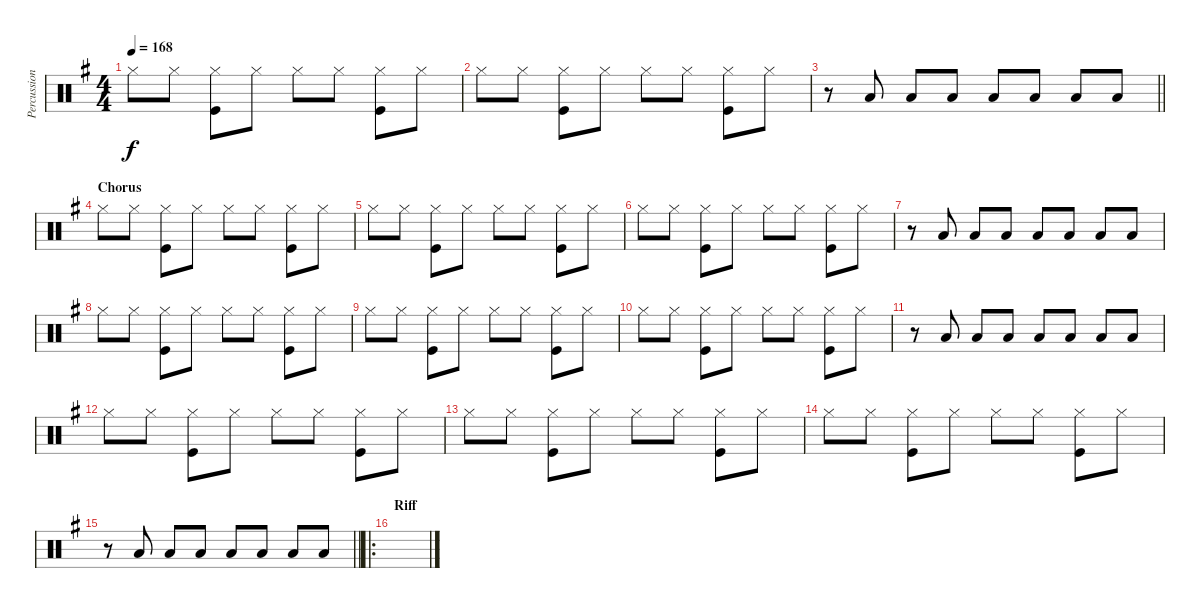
\track ("Percussion" "Percussion") {instrument percussion}
\staff {score}
\articulation defaults
\ts (4 4)
\tempo 168
\clef neutral
\ks g "Hi-Hat (closed)".8{dy f} "Hi-Hat (closed)".8
("Hi-Hat (closed)" "Kick (hit)").8 "Hi-Hat (closed)".8 "Hi-Hat (closed)".8 "Hi-Hat (closed)".8 ("Hi-Hat (closed)" "Kick (hit)").8 "Hi-Hat (closed)".8 |
"Hi-Hat (closed)".8 "Hi-Hat (closed)".8 ("Hi-Hat (closed)" "Kick (hit)").8 "Hi-Hat (closed)".8 "Hi-Hat (closed)".8 "Hi-Hat (closed)".8 ("Hi-Hat (closed)" "Kick (hit)").8 "Hi-Hat (closed)".8 |
\barLineRight lightlight
r.8 "Low Tom (hit)".8 "Low Tom (hit)".8 "Low Tom (hit)".8 "Low Tom (hit)".8 "Low Tom (hit)".8 "Low Tom (hit)".8 "Low Tom (hit)".8 |
\section ("" "Chorus")
"Hi-Hat (closed)".8 "Hi-Hat (closed)".8 ("Hi-Hat (closed)" "Kick (hit)").8 "Hi-Hat (closed)".8 "Hi-Hat (closed)".8 "Hi-Hat (closed)".8 ("Hi-Hat (closed)" "Kick (hit)").8 "Hi-Hat (closed)".8 |
"Hi-Hat (closed)".8 "Hi-Hat (closed)".8 ("Hi-Hat (closed)" "Kick (hit)").8 "Hi-Hat (closed)".8 "Hi-Hat (closed)".8 "Hi-Hat (closed)".8 ("Hi-Hat (closed)" "Kick (hit)").8 "Hi-Hat (closed)".8 |
"Hi-Hat (closed)".8 "Hi-Hat (closed)".8 ("Hi-Hat (closed)" "Kick (hit)").8 "Hi-Hat (closed)".8 "Hi-Hat (closed)".8 "Hi-Hat (closed)".8 ("Hi-Hat (closed)" "Kick (hit)").8 "Hi-Hat (closed)".8 |
r.8 "Low Tom (hit)".8 "Low Tom (hit)".8 "Low Tom (hit)".8 "Low Tom (hit)".8 "Low Tom (hit)".8 "Low Tom (hit)".8 "Low Tom (hit)".8 |
"Hi-Hat (closed)".8 "Hi-Hat (closed)".8 ("Hi-Hat (closed)" "Kick (hit)").8 "Hi-Hat (closed)".8 "Hi-Hat (closed)".8 "Hi-Hat (closed)".8 ("Hi-Hat (closed)" "Kick (hit)").8 "Hi-Hat (closed)".8 |
"Hi-Hat (closed)".8 "Hi-Hat (closed)".8 ("Hi-Hat (closed)" "Kick (hit)").8 "Hi-Hat (closed)".8 "Hi-Hat (closed)".8 "Hi-Hat (closed)".8 ("Hi-Hat (closed)" "Kick (hit)").8 "Hi-Hat (closed)".8 |
"Hi-Hat (closed)".8 "Hi-Hat (closed)".8 ("Hi-Hat (closed)" "Kick (hit)").8 "Hi-Hat (closed)".8 "Hi-Hat (closed)".8 "Hi-Hat (closed)".8 ("Hi-Hat (closed)" "Kick (hit)").8 "Hi-Hat (closed)".8 |
r.8 "Low Tom (hit)".8 "Low Tom (hit)".8 "Low Tom (hit)".8 "Low Tom (hit)".8 "Low Tom (hit)".8 "Low Tom (hit)".8 "Low Tom (hit)".8 |
"Hi-Hat (closed)".8 "Hi-Hat (closed)".8 ("Hi-Hat (closed)" "Kick (hit)").8 "Hi-Hat (closed)".8 "Hi-Hat (closed)".8 "Hi-Hat (closed)".8 ("Hi-Hat (closed)" "Kick (hit)").8 "Hi-Hat (closed)".8 |
"Hi-Hat (closed)".8 "Hi-Hat (closed)".8 ("Hi-Hat (closed)" "Kick (hit)").8 "Hi-Hat (closed)".8 "Hi-Hat (closed)".8 "Hi-Hat (closed)".8 ("Hi-Hat (closed)" "Kick (hit)").8 "Hi-Hat (closed)".8 |
"Hi-Hat (closed)".8 "Hi-Hat (closed)".8 ("Hi-Hat (closed)" "Kick (hit)").8 "Hi-Hat (closed)".8 "Hi-Hat (closed)".8 "Hi-Hat (closed)".8 ("Hi-Hat (closed)" "Kick (hit)").8 "Hi-Hat (closed)".8 |
\barLineRight lightlight
r.8 "Low Tom (hit)".8 "Low Tom (hit)".8 "Low Tom (hit)".8 "Low Tom (hit)".8 "Low Tom (hit)".8 "Low Tom (hit)".8 "Low Tom (hit)".8 |
\ro
\section ("" "Riff")
